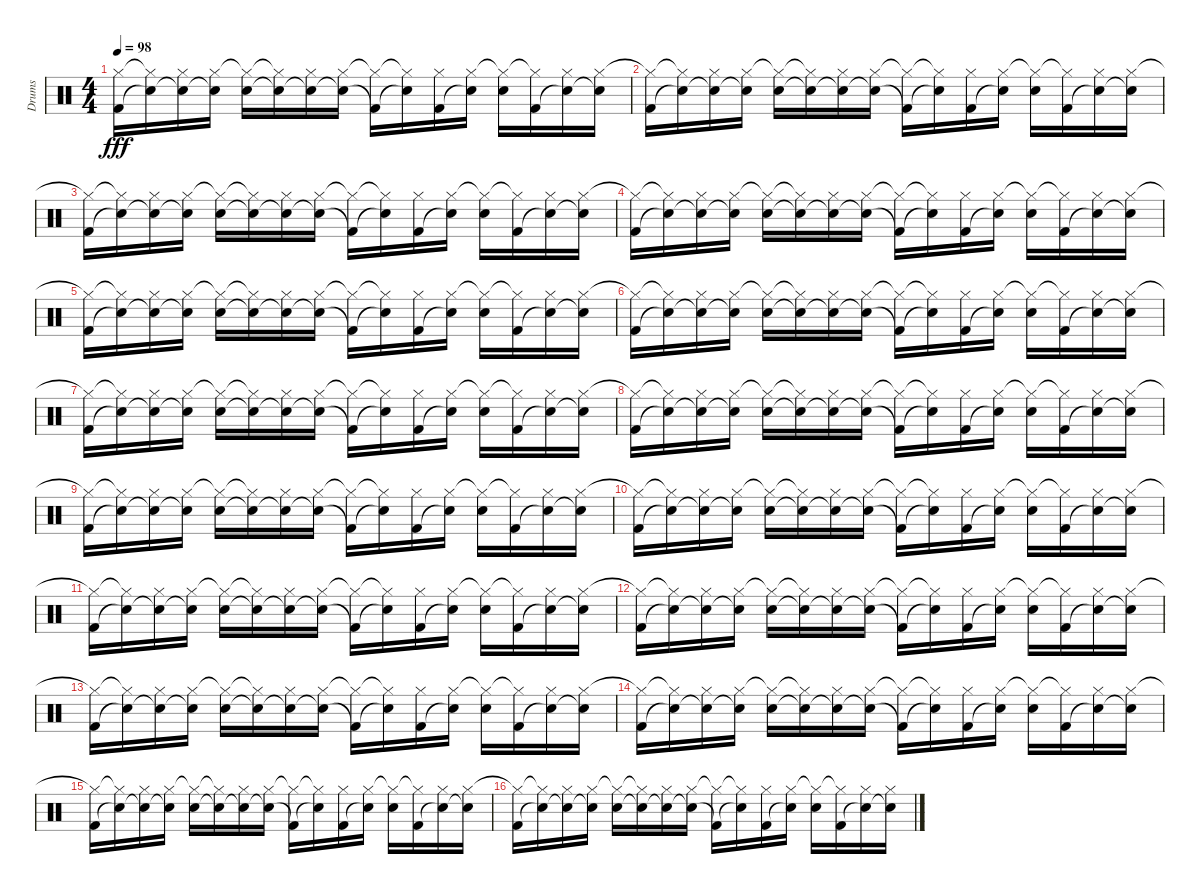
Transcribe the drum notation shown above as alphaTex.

\track ("Drums" "Drums") {instrument percussion}
\staff {score}
\articulation defaults
\ts (4 4)
\tempo 98
\clef neutral
\ks c
("Hi-Hat (closed)"{t} "Kick (hit) 2").16{dy fff} ("Hi-Hat (closed)"{t} "Snare (hit)"{t}).16 ("Hi-Hat (closed)" "Snare (hit)"{t}).16 ("Hi-Hat (closed)" "Snare (hit)"{t}).16 ("Hi-Hat (closed)"{t} "Electric Snare (hit)").16 ("Hi-Hat (closed)"{t} "Snare (hit)"{t}).16 ("Hi-Hat (closed)" "Snare (hit)"{t}).16 ("Hi-Hat (closed)" "Snare (hit)"{t}).16 ("Hi-Hat (closed)"{t} "Kick (hit) 2"{t}).16 ("Hi-Hat (closed)"{t} "Snare (hit)"{t}).16 ("Hi-Hat (closed)" "Kick (hit) 2").16 ("Hi-Hat (closed)" "Electric Snare (hit)"{t}).16 ("Hi-Hat (closed)"{t} "Electric Snare (hit)").16 ("Hi-Hat (closed)"{t} "Kick (hit) 2").16 ("Hi-Hat (closed)" "Electric Snare (hit)"{t}).16 ("Hi-Hat (closed)" "Snare (hit)"{t}).16 |
("Hi-Hat (closed)"{t} "Kick (hit) 2").16 ("Hi-Hat (closed)"{t} "Snare (hit)"{t}).16 ("Hi-Hat (closed)" "Snare (hit)"{t}).16 ("Hi-Hat (closed)" "Snare (hit)"{t}).16 ("Hi-Hat (closed)"{t} "Electric Snare (hit)").16 ("Hi-Hat (closed)"{t} "Snare (hit)"{t}).16 ("Hi-Hat (closed)" "Snare (hit)"{t}).16 ("Hi-Hat (closed)" "Snare (hit)"{t}).16 ("Hi-Hat (closed)"{t} "Kick (hit) 2"{t}).16 ("Hi-Hat (closed)"{t} "Snare (hit)"{t}).16 ("Hi-Hat (closed)" "Kick (hit) 2").16 ("Hi-Hat (closed)" "Electric Snare (hit)"{t}).16 ("Hi-Hat (closed)"{t} "Electric Snare (hit)").16 ("Hi-Hat (closed)"{t} "Kick (hit) 2").16 ("Hi-Hat (closed)" "Electric Snare (hit)"{t}).16 ("Hi-Hat (closed)" "Snare (hit)"{t}).16 |
("Hi-Hat (closed)"{t} "Kick (hit) 2").16 ("Hi-Hat (closed)"{t} "Snare (hit)"{t}).16 ("Hi-Hat (closed)" "Snare (hit)"{t}).16 ("Hi-Hat (closed)" "Snare (hit)"{t}).16 ("Hi-Hat (closed)"{t} "Electric Snare (hit)").16 ("Hi-Hat (closed)"{t} "Snare (hit)"{t}).16 ("Hi-Hat (closed)" "Snare (hit)"{t}).16 ("Hi-Hat (closed)" "Snare (hit)"{t}).16 ("Hi-Hat (closed)"{t} "Kick (hit) 2"{t}).16 ("Hi-Hat (closed)"{t} "Snare (hit)"{t}).16 ("Hi-Hat (closed)" "Kick (hit) 2").16 ("Hi-Hat (closed)" "Electric Snare (hit)"{t}).16 ("Hi-Hat (closed)"{t} "Electric Snare (hit)").16 ("Hi-Hat (closed)"{t} "Kick (hit) 2").16 ("Hi-Hat (closed)" "Electric Snare (hit)"{t}).16 ("Hi-Hat (closed)" "Snare (hit)"{t}).16 |
("Hi-Hat (closed)"{t} "Kick (hit) 2").16 ("Hi-Hat (closed)"{t} "Snare (hit)"{t}).16 ("Hi-Hat (closed)" "Snare (hit)"{t}).16 ("Hi-Hat (closed)" "Snare (hit)"{t}).16 ("Hi-Hat (closed)"{t} "Electric Snare (hit)").16 ("Hi-Hat (closed)"{t} "Snare (hit)"{t}).16 ("Hi-Hat (closed)" "Snare (hit)"{t}).16 ("Hi-Hat (closed)" "Snare (hit)"{t}).16 ("Hi-Hat (closed)"{t} "Kick (hit) 2"{t}).16 ("Hi-Hat (closed)"{t} "Snare (hit)"{t}).16 ("Hi-Hat (closed)" "Kick (hit) 2").16 ("Hi-Hat (closed)" "Electric Snare (hit)"{t}).16 ("Hi-Hat (closed)"{t} "Electric Snare (hit)").16 ("Hi-Hat (closed)"{t} "Kick (hit) 2").16 ("Hi-Hat (closed)" "Electric Snare (hit)"{t}).16 ("Hi-Hat (closed)" "Snare (hit)"{t}).16 |
("Hi-Hat (closed)"{t} "Kick (hit) 2").16 ("Hi-Hat (closed)"{t} "Snare (hit)"{t}).16 ("Hi-Hat (closed)" "Snare (hit)"{t}).16 ("Hi-Hat (closed)" "Snare (hit)"{t}).16 ("Hi-Hat (closed)"{t} "Electric Snare (hit)").16 ("Hi-Hat (closed)"{t} "Snare (hit)"{t}).16 ("Hi-Hat (closed)" "Snare (hit)"{t}).16 ("Hi-Hat (closed)" "Snare (hit)"{t}).16 ("Hi-Hat (closed)"{t} "Kick (hit) 2"{t}).16 ("Hi-Hat (closed)"{t} "Snare (hit)"{t}).16 ("Hi-Hat (closed)" "Kick (hit) 2").16 ("Hi-Hat (closed)" "Electric Snare (hit)"{t}).16 ("Hi-Hat (closed)"{t} "Electric Snare (hit)").16 ("Hi-Hat (closed)"{t} "Kick (hit) 2").16 ("Hi-Hat (closed)" "Electric Snare (hit)"{t}).16 ("Hi-Hat (closed)" "Snare (hit)"{t}).16 |
("Hi-Hat (closed)"{t} "Kick (hit) 2").16 ("Hi-Hat (closed)"{t} "Snare (hit)"{t}).16 ("Hi-Hat (closed)" "Snare (hit)"{t}).16 ("Hi-Hat (closed)" "Snare (hit)"{t}).16 ("Hi-Hat (closed)"{t} "Electric Snare (hit)").16 ("Hi-Hat (closed)"{t} "Snare (hit)"{t}).16 ("Hi-Hat (closed)" "Snare (hit)"{t}).16 ("Hi-Hat (closed)" "Snare (hit)"{t}).16 ("Hi-Hat (closed)"{t} "Kick (hit) 2"{t}).16 ("Hi-Hat (closed)"{t} "Snare (hit)"{t}).16 ("Hi-Hat (closed)" "Kick (hit) 2").16 ("Hi-Hat (closed)" "Electric Snare (hit)"{t}).16 ("Hi-Hat (closed)"{t} "Electric Snare (hit)").16 ("Hi-Hat (closed)"{t} "Kick (hit) 2").16 ("Hi-Hat (closed)" "Electric Snare (hit)"{t}).16 ("Hi-Hat (closed)" "Snare (hit)"{t}).16 |
("Hi-Hat (closed)"{t} "Kick (hit) 2").16 ("Hi-Hat (closed)"{t} "Snare (hit)"{t}).16 ("Hi-Hat (closed)" "Snare (hit)"{t}).16 ("Hi-Hat (closed)" "Snare (hit)"{t}).16 ("Hi-Hat (closed)"{t} "Electric Snare (hit)").16 ("Hi-Hat (closed)"{t} "Snare (hit)"{t}).16 ("Hi-Hat (closed)" "Snare (hit)"{t}).16 ("Hi-Hat (closed)" "Snare (hit)"{t}).16 ("Hi-Hat (closed)"{t} "Kick (hit) 2"{t}).16 ("Hi-Hat (closed)"{t} "Snare (hit)"{t}).16 ("Hi-Hat (closed)" "Kick (hit) 2").16 ("Hi-Hat (closed)" "Electric Snare (hit)"{t}).16 ("Hi-Hat (closed)"{t} "Electric Snare (hit)").16 ("Hi-Hat (closed)"{t} "Kick (hit) 2").16 ("Hi-Hat (closed)" "Electric Snare (hit)"{t}).16 ("Hi-Hat (closed)" "Snare (hit)"{t}).16 |
("Hi-Hat (closed)"{t} "Kick (hit) 2").16 ("Hi-Hat (closed)"{t} "Snare (hit)"{t}).16 ("Hi-Hat (closed)" "Snare (hit)"{t}).16 ("Hi-Hat (closed)" "Snare (hit)"{t}).16 ("Hi-Hat (closed)"{t} "Electric Snare (hit)").16 ("Hi-Hat (closed)"{t} "Snare (hit)"{t}).16 ("Hi-Hat (closed)" "Snare (hit)"{t}).16 ("Hi-Hat (closed)" "Snare (hit)"{t}).16 ("Hi-Hat (closed)"{t} "Kick (hit) 2"{t}).16 ("Hi-Hat (closed)"{t} "Snare (hit)"{t}).16 ("Hi-Hat (closed)" "Kick (hit) 2").16 ("Hi-Hat (closed)" "Electric Snare (hit)"{t}).16 ("Hi-Hat (closed)"{t} "Electric Snare (hit)").16 ("Hi-Hat (closed)"{t} "Kick (hit) 2").16 ("Hi-Hat (closed)" "Electric Snare (hit)"{t}).16 ("Hi-Hat (closed)" "Snare (hit)"{t}).16 |
("Hi-Hat (closed)"{t} "Kick (hit) 2").16 ("Hi-Hat (closed)"{t} "Snare (hit)"{t}).16 ("Hi-Hat (closed)" "Snare (hit)"{t}).16 ("Hi-Hat (closed)" "Snare (hit)"{t}).16 ("Hi-Hat (closed)"{t} "Electric Snare (hit)").16 ("Hi-Hat (closed)"{t} "Snare (hit)"{t}).16 ("Hi-Hat (closed)" "Snare (hit)"{t}).16 ("Hi-Hat (closed)" "Snare (hit)"{t}).16 ("Hi-Hat (closed)"{t} "Kick (hit) 2"{t}).16 ("Hi-Hat (closed)"{t} "Snare (hit)"{t}).16 ("Hi-Hat (closed)" "Kick (hit) 2").16 ("Hi-Hat (closed)" "Electric Snare (hit)"{t}).16 ("Hi-Hat (closed)"{t} "Electric Snare (hit)").16 ("Hi-Hat (closed)"{t} "Kick (hit) 2").16 ("Hi-Hat (closed)" "Electric Snare (hit)"{t}).16 ("Hi-Hat (closed)" "Snare (hit)"{t}).16 |
("Hi-Hat (closed)"{t} "Kick (hit) 2").16 ("Hi-Hat (closed)"{t} "Snare (hit)"{t}).16 ("Hi-Hat (closed)" "Snare (hit)"{t}).16 ("Hi-Hat (closed)" "Snare (hit)"{t}).16 ("Hi-Hat (closed)"{t} "Electric Snare (hit)").16 ("Hi-Hat (closed)"{t} "Snare (hit)"{t}).16 ("Hi-Hat (closed)" "Snare (hit)"{t}).16 ("Hi-Hat (closed)" "Snare (hit)"{t}).16 ("Hi-Hat (closed)"{t} "Kick (hit) 2"{t}).16 ("Hi-Hat (closed)"{t} "Snare (hit)"{t}).16 ("Hi-Hat (closed)" "Kick (hit) 2").16 ("Hi-Hat (closed)" "Electric Snare (hit)"{t}).16 ("Hi-Hat (closed)"{t} "Electric Snare (hit)").16 ("Hi-Hat (closed)"{t} "Kick (hit) 2").16 ("Hi-Hat (closed)" "Electric Snare (hit)"{t}).16 ("Hi-Hat (closed)" "Snare (hit)"{t}).16 |
("Hi-Hat (closed)"{t} "Kick (hit) 2").16 ("Hi-Hat (closed)"{t} "Snare (hit)"{t}).16 ("Hi-Hat (closed)" "Snare (hit)"{t}).16 ("Hi-Hat (closed)" "Snare (hit)"{t}).16 ("Hi-Hat (closed)"{t} "Electric Snare (hit)").16 ("Hi-Hat (closed)"{t} "Snare (hit)"{t}).16 ("Hi-Hat (closed)" "Snare (hit)"{t}).16 ("Hi-Hat (closed)" "Snare (hit)"{t}).16 ("Hi-Hat (closed)"{t} "Kick (hit) 2"{t}).16 ("Hi-Hat (closed)"{t} "Snare (hit)"{t}).16 ("Hi-Hat (closed)" "Kick (hit) 2").16 ("Hi-Hat (closed)" "Electric Snare (hit)"{t}).16 ("Hi-Hat (closed)"{t} "Electric Snare (hit)").16 ("Hi-Hat (closed)"{t} "Kick (hit) 2").16 ("Hi-Hat (closed)" "Electric Snare (hit)"{t}).16 ("Hi-Hat (closed)" "Snare (hit)"{t}).16 |
("Hi-Hat (closed)"{t} "Kick (hit) 2").16 ("Hi-Hat (closed)"{t} "Snare (hit)"{t}).16 ("Hi-Hat (closed)" "Snare (hit)"{t}).16 ("Hi-Hat (closed)" "Snare (hit)"{t}).16 ("Hi-Hat (closed)"{t} "Electric Snare (hit)").16 ("Hi-Hat (closed)"{t} "Snare (hit)"{t}).16 ("Hi-Hat (closed)" "Snare (hit)"{t}).16 ("Hi-Hat (closed)" "Snare (hit)"{t}).16 ("Hi-Hat (closed)"{t} "Kick (hit) 2"{t}).16 ("Hi-Hat (closed)"{t} "Snare (hit)"{t}).16 ("Hi-Hat (closed)" "Kick (hit) 2").16 ("Hi-Hat (closed)" "Electric Snare (hit)"{t}).16 ("Hi-Hat (closed)"{t} "Electric Snare (hit)").16 ("Hi-Hat (closed)"{t} "Kick (hit) 2").16 ("Hi-Hat (closed)" "Electric Snare (hit)"{t}).16 ("Hi-Hat (closed)" "Snare (hit)"{t}).16 |
("Hi-Hat (closed)"{t} "Kick (hit) 2").16 ("Hi-Hat (closed)"{t} "Snare (hit)"{t}).16 ("Hi-Hat (closed)" "Snare (hit)"{t}).16 ("Hi-Hat (closed)" "Snare (hit)"{t}).16 ("Hi-Hat (closed)"{t} "Electric Snare (hit)").16 ("Hi-Hat (closed)"{t} "Snare (hit)"{t}).16 ("Hi-Hat (closed)" "Snare (hit)"{t}).16 ("Hi-Hat (closed)" "Snare (hit)"{t}).16 ("Hi-Hat (closed)"{t} "Kick (hit) 2"{t}).16 ("Hi-Hat (closed)"{t} "Snare (hit)"{t}).16 ("Hi-Hat (closed)" "Kick (hit) 2").16 ("Hi-Hat (closed)" "Electric Snare (hit)"{t}).16 ("Hi-Hat (closed)"{t} "Electric Snare (hit)").16 ("Hi-Hat (closed)"{t} "Kick (hit) 2").16 ("Hi-Hat (closed)" "Electric Snare (hit)"{t}).16 ("Hi-Hat (closed)" "Snare (hit)"{t}).16 |
("Hi-Hat (closed)"{t} "Kick (hit) 2").16 ("Hi-Hat (closed)"{t} "Snare (hit)"{t}).16 ("Hi-Hat (closed)" "Snare (hit)"{t}).16 ("Hi-Hat (closed)" "Snare (hit)"{t}).16 ("Hi-Hat (closed)"{t} "Electric Snare (hit)").16 ("Hi-Hat (closed)"{t} "Snare (hit)"{t}).16 ("Hi-Hat (closed)" "Snare (hit)"{t}).16 ("Hi-Hat (closed)" "Snare (hit)"{t}).16 ("Hi-Hat (closed)"{t} "Kick (hit) 2"{t}).16 ("Hi-Hat (closed)"{t} "Snare (hit)"{t}).16 ("Hi-Hat (closed)" "Kick (hit) 2").16 ("Hi-Hat (closed)" "Electric Snare (hit)"{t}).16 ("Hi-Hat (closed)"{t} "Electric Snare (hit)").16 ("Hi-Hat (closed)"{t} "Kick (hit) 2").16 ("Hi-Hat (closed)" "Electric Snare (hit)"{t}).16 ("Hi-Hat (closed)" "Snare (hit)"{t}).16 |
("Hi-Hat (closed)"{t} "Kick (hit) 2").16 ("Hi-Hat (closed)"{t} "Snare (hit)"{t}).16 ("Hi-Hat (closed)" "Snare (hit)"{t}).16 ("Hi-Hat (closed)" "Snare (hit)"{t}).16 ("Hi-Hat (closed)"{t} "Electric Snare (hit)").16 ("Hi-Hat (closed)"{t} "Snare (hit)"{t}).16 ("Hi-Hat (closed)" "Snare (hit)"{t}).16 ("Hi-Hat (closed)" "Snare (hit)"{t}).16 ("Hi-Hat (closed)"{t} "Kick (hit) 2"{t}).16 ("Hi-Hat (closed)"{t} "Snare (hit)"{t}).16 ("Hi-Hat (closed)" "Kick (hit) 2").16 ("Hi-Hat (closed)" "Electric Snare (hit)"{t}).16 ("Hi-Hat (closed)"{t} "Electric Snare (hit)").16 ("Hi-Hat (closed)"{t} "Kick (hit) 2").16 ("Hi-Hat (closed)" "Electric Snare (hit)"{t}).16 ("Hi-Hat (closed)" "Snare (hit)"{t}).16 |
("Hi-Hat (closed)"{t} "Kick (hit) 2").16 ("Hi-Hat (closed)"{t} "Snare (hit)"{t}).16 ("Hi-Hat (closed)" "Snare (hit)"{t}).16 ("Hi-Hat (closed)" "Snare (hit)"{t}).16 ("Hi-Hat (closed)"{t} "Electric Snare (hit)").16 ("Hi-Hat (closed)"{t} "Snare (hit)"{t}).16 ("Hi-Hat (closed)" "Snare (hit)"{t}).16 ("Hi-Hat (closed)" "Snare (hit)"{t}).16 ("Hi-Hat (closed)"{t} "Kick (hit) 2"{t}).16 ("Hi-Hat (closed)"{t} "Snare (hit)"{t}).16 ("Hi-Hat (closed)" "Kick (hit) 2").16 ("Hi-Hat (closed)" "Electric Snare (hit)"{t}).16 ("Hi-Hat (closed)"{t} "Electric Snare (hit)").16 ("Hi-Hat (closed)"{t} "Kick (hit) 2").16 ("Hi-Hat (closed)" "Electric Snare (hit)"{t}).16 ("Hi-Hat (closed)" "Snare (hit)"{t}).16
